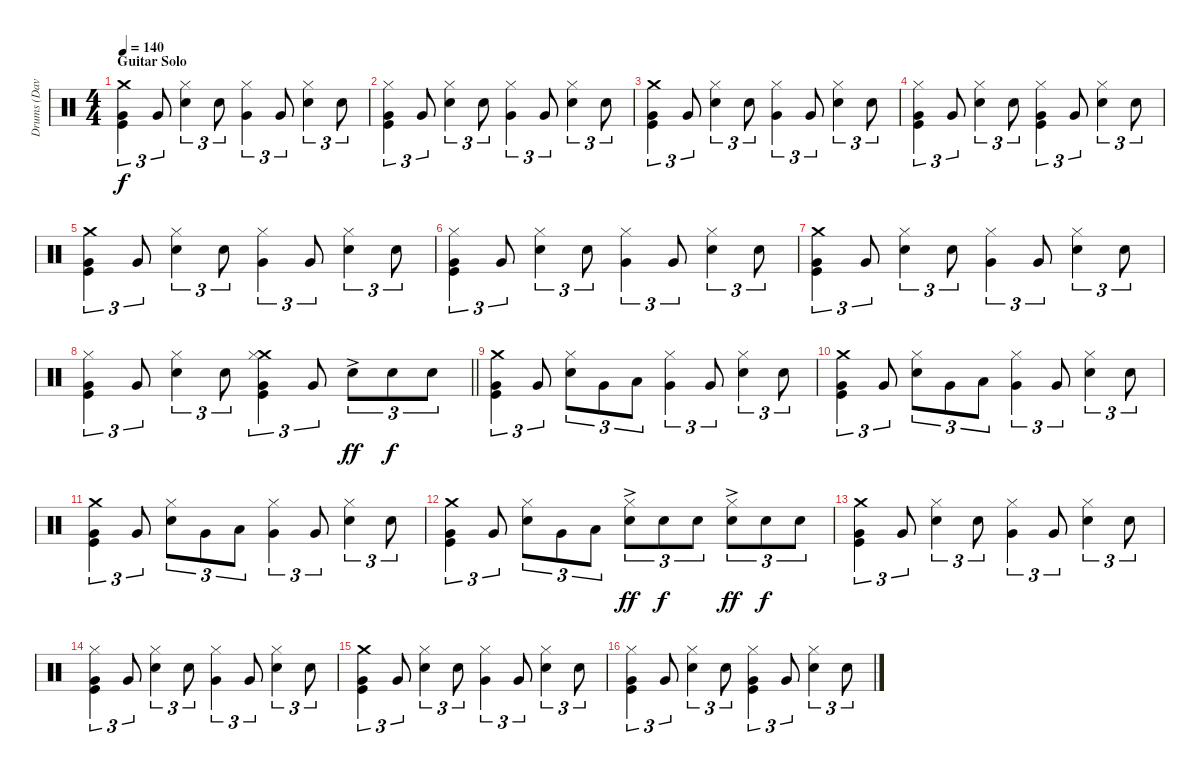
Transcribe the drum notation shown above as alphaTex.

\track ("Drums (Dave Atkins)" "Drums (Dav") {instrument percussion}
\staff {score}
\articulation defaults
\ts (4 4)
\section ("" "Guitar Solo")
\tempo 140
\clef neutral
\ks c
("Crash medium (hit)" "Very Low Tom (hit)" "Kick (hit)").4{tu (3 2) dy f} "Very Low Tom (hit)".8{tu (3 2)} ("Hi-Hat (closed)" "Snare (hit) 2").4{tu (3 2)} "Snare (hit) 2".8{tu (3 2)} ("Hi-Hat (closed)" "Very Low Tom (hit)").4{tu (3 2)} "Very Low Tom (hit)".8{tu (3 2)} ("Hi-Hat (closed)" "Snare (hit) 2").4{tu (3 2)} "Snare (hit) 2".8{tu (3 2)} |
("Hi-Hat (closed)" "Very Low Tom (hit)" "Kick (hit)").4{tu (3 2)} "Very Low Tom (hit)".8{tu (3 2)} ("Hi-Hat (closed)" "Snare (hit) 2").4{tu (3 2)} "Snare (hit) 2".8{tu (3 2)} ("Hi-Hat (closed)" "Very Low Tom (hit)").4{tu (3 2)} "Very Low Tom (hit)".8{tu (3 2)} ("Hi-Hat (closed)" "Snare (hit) 2").4{tu (3 2)} "Snare (hit) 2".8{tu (3 2)} |
("Crash medium (hit)" "Very Low Tom (hit)" "Kick (hit)").4{tu (3 2)} "Very Low Tom (hit)".8{tu (3 2)} ("Hi-Hat (closed)" "Snare (hit) 2").4{tu (3 2)} "Snare (hit) 2".8{tu (3 2)} ("Hi-Hat (closed)" "Very Low Tom (hit)").4{tu (3 2)} "Very Low Tom (hit)".8{tu (3 2)} ("Hi-Hat (closed)" "Snare (hit) 2").4{tu (3 2)} "Snare (hit) 2".8{tu (3 2)} |
("Hi-Hat (closed)" "Very Low Tom (hit)" "Kick (hit)").4{tu (3 2)} "Very Low Tom (hit)".8{tu (3 2)} ("Hi-Hat (closed)" "Snare (hit) 2").4{tu (3 2)} "Snare (hit) 2".8{tu (3 2)} ("Hi-Hat (closed)" "Very Low Tom (hit)" "Kick (hit)").4{tu (3 2)} "Very Low Tom (hit)".8{tu (3 2)} ("Hi-Hat (closed)" "Snare (hit) 2").4{tu (3 2)} "Snare (hit) 2".8{tu (3 2)} |
("Crash medium (hit)" "Very Low Tom (hit)" "Kick (hit)").4{tu (3 2)} "Very Low Tom (hit)".8{tu (3 2)} ("Hi-Hat (closed)" "Snare (hit) 2").4{tu (3 2)} "Snare (hit) 2".8{tu (3 2)} ("Hi-Hat (closed)" "Very Low Tom (hit)").4{tu (3 2)} "Very Low Tom (hit)".8{tu (3 2)} ("Hi-Hat (closed)" "Snare (hit) 2").4{tu (3 2)} "Snare (hit) 2".8{tu (3 2)} |
("Hi-Hat (closed)" "Very Low Tom (hit)" "Kick (hit)").4{tu (3 2)} "Very Low Tom (hit)".8{tu (3 2)} ("Hi-Hat (closed)" "Snare (hit) 2").4{tu (3 2)} "Snare (hit) 2".8{tu (3 2)} ("Hi-Hat (closed)" "Very Low Tom (hit)").4{tu (3 2)} "Very Low Tom (hit)".8{tu (3 2)} ("Hi-Hat (closed)" "Snare (hit) 2").4{tu (3 2)} "Snare (hit) 2".8{tu (3 2)} |
("Crash medium (hit)" "Very Low Tom (hit)" "Kick (hit)").4{tu (3 2)} "Very Low Tom (hit)".8{tu (3 2)} ("Hi-Hat (closed)" "Snare (hit) 2").4{tu (3 2)} "Snare (hit) 2".8{tu (3 2)} ("Hi-Hat (closed)" "Very Low Tom (hit)").4{tu (3 2)} "Very Low Tom (hit)".8{tu (3 2)} ("Hi-Hat (closed)" "Snare (hit) 2").4{tu (3 2)} "Snare (hit) 2".8{tu (3 2)} |
\barLineRight lightlight
("Hi-Hat (closed)" "Very Low Tom (hit)" "Kick (hit)").4{tu (3 2)} "Very Low Tom (hit)".8{tu (3 2)} ("Hi-Hat (closed)" "Snare (hit) 2").4{tu (3 2)} "Snare (hit) 2".8{tu (3 2)} ("Crash medium (hit)" "Hi-Hat (closed)" "Very Low Tom (hit)" "Kick (hit)").4{tu (3 2)} "Very Low Tom (hit)".8{tu (3 2)} "Snare (hit) 2"{ac}.8{tu (3 2) dy ff} "Snare (hit) 2".8{tu (3 2) dy f} "Snare (hit) 2".8{tu (3 2)} |
("Crash medium (hit)" "Very Low Tom (hit)" "Kick (hit)").4{tu (3 2)} "Very Low Tom (hit)".8{tu (3 2)} ("Hi-Hat (closed)" "Snare (hit) 2").8{tu (3 2)} "Very Low Tom (hit)".8{tu (3 2)} "Low Floor Tom (hit)".8{tu (3 2)} ("Hi-Hat (closed)" "Very Low Tom (hit)").4{tu (3 2)} "Very Low Tom (hit)".8{tu (3 2)} ("Hi-Hat (closed)" "Snare (hit) 2").4{tu (3 2)} "Snare (hit) 2".8{tu (3 2)} |
("Crash medium (hit)" "Very Low Tom (hit)" "Kick (hit)").4{tu (3 2)} "Very Low Tom (hit)".8{tu (3 2)} ("Hi-Hat (closed)" "Snare (hit) 2").8{tu (3 2)} "Very Low Tom (hit)".8{tu (3 2)} "Low Floor Tom (hit)".8{tu (3 2)} ("Hi-Hat (closed)" "Very Low Tom (hit)").4{tu (3 2)} "Very Low Tom (hit)".8{tu (3 2)} ("Hi-Hat (closed)" "Snare (hit) 2").4{tu (3 2)} "Snare (hit) 2".8{tu (3 2)} |
("Crash medium (hit)" "Very Low Tom (hit)" "Kick (hit)").4{tu (3 2)} "Very Low Tom (hit)".8{tu (3 2)} ("Hi-Hat (closed)" "Snare (hit) 2").8{tu (3 2)} "Very Low Tom (hit)".8{tu (3 2)} "Low Floor Tom (hit)".8{tu (3 2)} ("Hi-Hat (closed)" "Very Low Tom (hit)").4{tu (3 2)} "Very Low Tom (hit)".8{tu (3 2)} ("Hi-Hat (closed)" "Snare (hit) 2").4{tu (3 2)} "Snare (hit) 2".8{tu (3 2)} |
("Crash medium (hit)" "Very Low Tom (hit)" "Kick (hit)").4{tu (3 2)} "Very Low Tom (hit)".8{tu (3 2)} ("Hi-Hat (closed)" "Snare (hit) 2").8{tu (3 2)} "Very Low Tom (hit)".8{tu (3 2)} "Low Floor Tom (hit)".8{tu (3 2)} ("Hi-Hat (closed)" "Snare (hit) 2"{ac}).8{tu (3 2) dy ff} "Snare (hit) 2".8{tu (3 2) dy f} "Snare (hit) 2".8{tu (3 2)} ("Hi-Hat (closed)" "Snare (hit) 2"{ac}).8{tu (3 2) dy ff} "Snare (hit) 2".8{tu (3 2) dy f} "Snare (hit) 2".8{tu (3 2)} |
("Crash medium (hit)" "Very Low Tom (hit)" "Kick (hit)").4{tu (3 2)} "Very Low Tom (hit)".8{tu (3 2)} ("Hi-Hat (closed)" "Snare (hit) 2").4{tu (3 2)} "Snare (hit) 2".8{tu (3 2)} ("Hi-Hat (closed)" "Very Low Tom (hit)").4{tu (3 2)} "Very Low Tom (hit)".8{tu (3 2)} ("Hi-Hat (closed)" "Snare (hit) 2").4{tu (3 2)} "Snare (hit) 2".8{tu (3 2)} |
("Hi-Hat (closed)" "Very Low Tom (hit)" "Kick (hit)").4{tu (3 2)} "Very Low Tom (hit)".8{tu (3 2)} ("Hi-Hat (closed)" "Snare (hit) 2").4{tu (3 2)} "Snare (hit) 2".8{tu (3 2)} ("Hi-Hat (closed)" "Very Low Tom (hit)").4{tu (3 2)} "Very Low Tom (hit)".8{tu (3 2)} ("Hi-Hat (closed)" "Snare (hit) 2").4{tu (3 2)} "Snare (hit) 2".8{tu (3 2)} |
("Crash medium (hit)" "Very Low Tom (hit)" "Kick (hit)").4{tu (3 2)} "Very Low Tom (hit)".8{tu (3 2)} ("Hi-Hat (closed)" "Snare (hit) 2").4{tu (3 2)} "Snare (hit) 2".8{tu (3 2)} ("Hi-Hat (closed)" "Very Low Tom (hit)").4{tu (3 2)} "Very Low Tom (hit)".8{tu (3 2)} ("Hi-Hat (closed)" "Snare (hit) 2").4{tu (3 2)} "Snare (hit) 2".8{tu (3 2)} |
("Hi-Hat (closed)" "Very Low Tom (hit)" "Kick (hit)").4{tu (3 2)} "Very Low Tom (hit)".8{tu (3 2)} ("Hi-Hat (closed)" "Snare (hit) 2").4{tu (3 2)} "Snare (hit) 2".8{tu (3 2)} ("Hi-Hat (closed)" "Very Low Tom (hit)" "Kick (hit)").4{tu (3 2)} "Very Low Tom (hit)".8{tu (3 2)} ("Hi-Hat (closed)" "Snare (hit) 2").4{tu (3 2)} "Snare (hit) 2".8{tu (3 2)}
